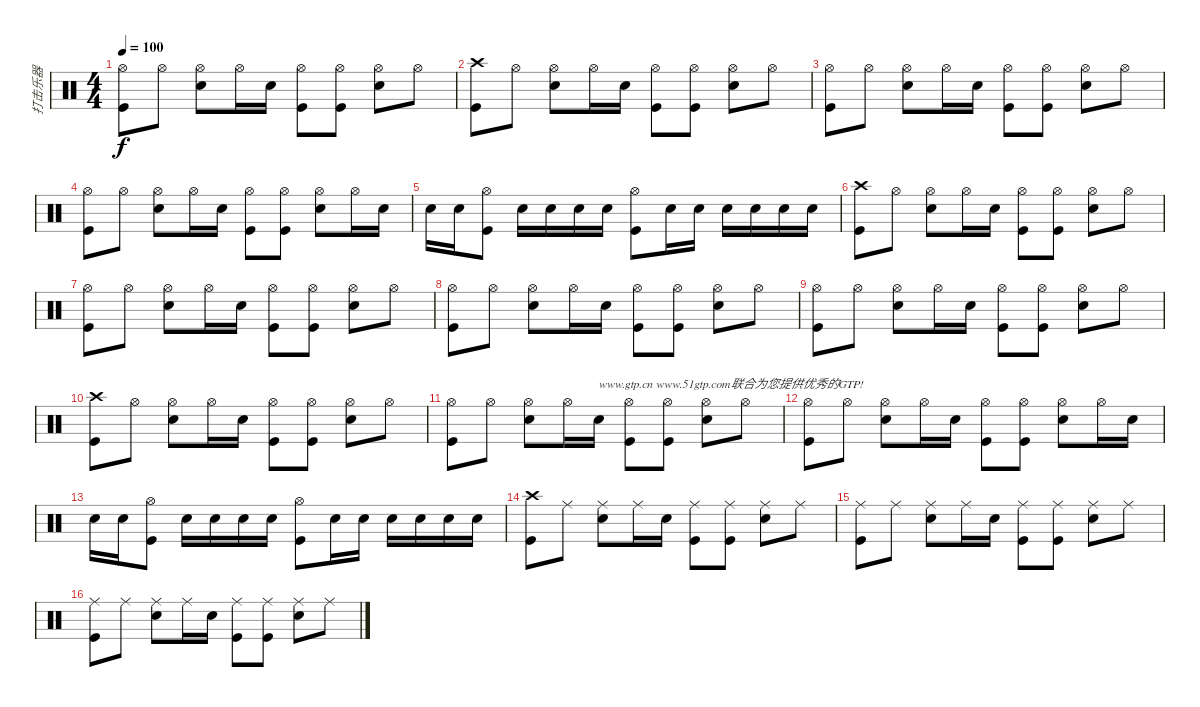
\track ("打击乐器" "打击乐器") {instrument percussion}
\staff {score}
\articulation defaults
\ts (4 4)
\tempo 100
\clef neutral
\ks c
("Hi-Hat (open)" "Kick (hit)").8{dy f} "Hi-Hat (open)".8 ("Hi-Hat (open)" "Electric Snare (hit)").8 "Hi-Hat (open)".16 "Electric Snare (hit)".16 ("Hi-Hat (open)" "Kick (hit)").8 ("Hi-Hat (open)" "Kick (hit)").8 ("Hi-Hat (open)" "Electric Snare (hit)").8 "Hi-Hat (open)".8 |
("Crash high (hit)" "Kick (hit)").8 "Hi-Hat (open)".8 ("Hi-Hat (open)" "Electric Snare (hit)").8 "Hi-Hat (open)".16 "Electric Snare (hit)".16 ("Hi-Hat (open)" "Kick (hit)").8 ("Hi-Hat (open)" "Kick (hit)").8 ("Hi-Hat (open)" "Electric Snare (hit)").8 "Hi-Hat (open)".8 |
("Hi-Hat (open)" "Kick (hit)").8 "Hi-Hat (open)".8 ("Hi-Hat (open)" "Electric Snare (hit)").8 "Hi-Hat (open)".16 "Electric Snare (hit)".16 ("Hi-Hat (open)" "Kick (hit)").8 ("Hi-Hat (open)" "Kick (hit)").8 ("Hi-Hat (open)" "Electric Snare (hit)").8 "Hi-Hat (open)".8 |
("Hi-Hat (open)" "Kick (hit)").8 "Hi-Hat (open)".8 ("Hi-Hat (open)" "Electric Snare (hit)").8 "Hi-Hat (open)".16 "Electric Snare (hit)".16 ("Hi-Hat (open)" "Kick (hit)").8 ("Hi-Hat (open)" "Kick (hit)").8 ("Hi-Hat (open)" "Electric Snare (hit)").8 "Hi-Hat (open)".16 "Electric Snare (hit)".16 |
"Electric Snare (hit)".16 "Electric Snare (hit)".16 ("Hi-Hat (open)" "Kick (hit)").8 "Electric Snare (hit)".16 "Electric Snare (hit)".16 "Electric Snare (hit)".16 "Electric Snare (hit)".16 ("Hi-Hat (open)" "Kick (hit)").8 "Electric Snare (hit)".16 "Electric Snare (hit)".16 "Electric Snare (hit)".16 "Electric Snare (hit)".16 "Electric Snare (hit)".16 "Electric Snare (hit)".16 |
("Crash high (hit)" "Kick (hit)").8 "Hi-Hat (open)".8 ("Hi-Hat (open)" "Electric Snare (hit)").8 "Hi-Hat (open)".16 "Electric Snare (hit)".16 ("Hi-Hat (open)" "Kick (hit)").8 ("Hi-Hat (open)" "Kick (hit)").8 ("Hi-Hat (open)" "Electric Snare (hit)").8 "Hi-Hat (open)".8 |
("Hi-Hat (open)" "Kick (hit)").8 "Hi-Hat (open)".8 ("Hi-Hat (open)" "Electric Snare (hit)").8 "Hi-Hat (open)".16 "Electric Snare (hit)".16 ("Hi-Hat (open)" "Kick (hit)").8 ("Hi-Hat (open)" "Kick (hit)").8 ("Hi-Hat (open)" "Electric Snare (hit)").8 "Hi-Hat (open)".8 |
("Hi-Hat (open)" "Kick (hit)").8 "Hi-Hat (open)".8 ("Hi-Hat (open)" "Electric Snare (hit)").8 "Hi-Hat (open)".16 "Electric Snare (hit)".16 ("Hi-Hat (open)" "Kick (hit)").8 ("Hi-Hat (open)" "Kick (hit)").8 ("Hi-Hat (open)" "Electric Snare (hit)").8 "Hi-Hat (open)".8 |
("Hi-Hat (open)" "Kick (hit)").8 "Hi-Hat (open)".8 ("Hi-Hat (open)" "Electric Snare (hit)").8 "Hi-Hat (open)".16 "Electric Snare (hit)".16 ("Hi-Hat (open)" "Kick (hit)").8 ("Hi-Hat (open)" "Kick (hit)").8 ("Hi-Hat (open)" "Electric Snare (hit)").8 "Hi-Hat (open)".8 |
("Crash high (hit)" "Kick (hit)").8 "Hi-Hat (open)".8 ("Hi-Hat (open)" "Electric Snare (hit)").8 "Hi-Hat (open)".16 "Electric Snare (hit)".16 ("Hi-Hat (open)" "Kick (hit)").8 ("Hi-Hat (open)" "Kick (hit)").8 ("Hi-Hat (open)" "Electric Snare (hit)").8 "Hi-Hat (open)".8 |
("Hi-Hat (open)" "Kick (hit)").8 "Hi-Hat (open)".8 ("Hi-Hat (open)" "Electric Snare (hit)").8 "Hi-Hat (open)".16 "Electric Snare (hit)".16{txt "www.gtp.cn www.51gtp.com联合为您提供优秀的GTP!"} ("Hi-Hat (open)" "Kick (hit)").8 ("Hi-Hat (open)" "Kick (hit)").8 ("Hi-Hat (open)" "Electric Snare (hit)").8 "Hi-Hat (open)".8 |
("Hi-Hat (open)" "Kick (hit)").8 "Hi-Hat (open)".8 ("Hi-Hat (open)" "Electric Snare (hit)").8 "Hi-Hat (open)".16 "Electric Snare (hit)".16 ("Hi-Hat (open)" "Kick (hit)").8 ("Hi-Hat (open)" "Kick (hit)").8 ("Hi-Hat (open)" "Electric Snare (hit)").8 "Hi-Hat (open)".16 "Electric Snare (hit)".16 |
"Electric Snare (hit)".16 "Electric Snare (hit)".16 ("Hi-Hat (open)" "Kick (hit)").8 "Electric Snare (hit)".16 "Electric Snare (hit)".16 "Electric Snare (hit)".16 "Electric Snare (hit)".16 ("Hi-Hat (open)" "Kick (hit)").8 "Electric Snare (hit)".16 "Electric Snare (hit)".16 "Electric Snare (hit)".16 "Electric Snare (hit)".16 "Electric Snare (hit)".16 "Electric Snare (hit)".16 |
("Crash high (hit)" "Kick (hit)").8 "Ride (middle)".8 ("Ride (middle)" "Electric Snare (hit)").8 "Ride (middle)".16 "Electric Snare (hit)".16 ("Ride (middle)" "Kick (hit)").8 ("Ride (middle)" "Kick (hit)").8 ("Ride (middle)" "Electric Snare (hit)").8 "Ride (middle)".8 |
("Ride (middle)" "Kick (hit)").8 "Ride (middle)".8 ("Ride (middle)" "Electric Snare (hit)").8 "Ride (middle)".16 "Electric Snare (hit)".16 ("Ride (middle)" "Kick (hit)").8 ("Ride (middle)" "Kick (hit)").8 ("Ride (middle)" "Electric Snare (hit)").8 "Ride (middle)".8 |
("Ride (middle)" "Kick (hit)").8 "Ride (middle)".8 ("Ride (middle)" "Electric Snare (hit)").8 "Ride (middle)".16 "Electric Snare (hit)".16 ("Ride (middle)" "Kick (hit)").8 ("Ride (middle)" "Kick (hit)").8 ("Ride (middle)" "Electric Snare (hit)").8 "Ride (middle)".8
